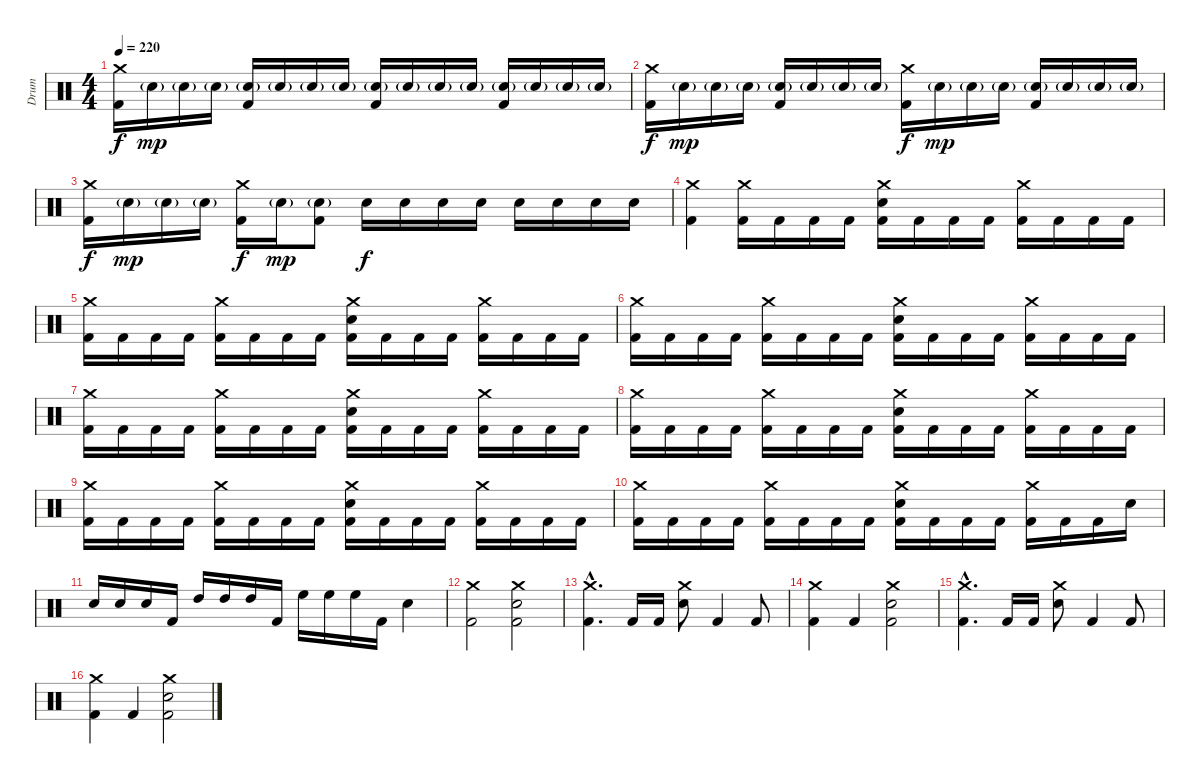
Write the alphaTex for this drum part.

\track ("Drum" "Drum") {instrument percussion}
\staff {score}
\articulation defaults
\ts (4 4)
\tempo 220
\clef neutral
\ks c
("Crash medium (hit)" "Kick (hit) 2").16{dy f} "Electric Snare (hit)"{g}.16{dy mp} "Electric Snare (hit)"{g}.16 "Electric Snare (hit)"{g}.16 ("Electric Snare (hit)"{g} "Kick (hit) 2").16 "Electric Snare (hit)"{g}.16 "Electric Snare (hit)"{g}.16 "Electric Snare (hit)"{g}.16 ("Electric Snare (hit)"{g} "Kick (hit) 2").16 "Electric Snare (hit)"{g}.16 "Electric Snare (hit)"{g}.16 "Electric Snare (hit)"{g}.16 ("Electric Snare (hit)"{g} "Kick (hit) 2").16 "Electric Snare (hit)"{g}.16 "Electric Snare (hit)"{g}.16 "Electric Snare (hit)"{g}.16 |
("Crash medium (hit)" "Kick (hit) 2").16{dy f} "Electric Snare (hit)"{g}.16{dy mp} "Electric Snare (hit)"{g}.16 "Electric Snare (hit)"{g}.16 ("Electric Snare (hit)"{g} "Kick (hit) 2").16 "Electric Snare (hit)"{g}.16 "Electric Snare (hit)"{g}.16 "Electric Snare (hit)"{g}.16 ("Crash medium (hit)" "Kick (hit) 2").16{dy f} "Electric Snare (hit)"{g}.16{dy mp} "Electric Snare (hit)"{g}.16 "Electric Snare (hit)"{g}.16 ("Electric Snare (hit)"{g} "Kick (hit) 2").16 "Electric Snare (hit)"{g}.16 "Electric Snare (hit)"{g}.16 "Electric Snare (hit)"{g}.16 |
("Crash medium (hit)" "Kick (hit) 2").16{dy f} "Electric Snare (hit)"{g}.16{dy mp} "Electric Snare (hit)"{g}.16 "Electric Snare (hit)"{g}.16 ("Crash medium (hit)" "Kick (hit) 2").16{dy f} "Electric Snare (hit)"{g}.16{dy mp} ("Electric Snare (hit)"{g} "Kick (hit) 2").8 "Electric Snare (hit)".16{dy f} "Electric Snare (hit)".16 "Electric Snare (hit)".16 "Electric Snare (hit)".16 "Electric Snare (hit)".16 "Electric Snare (hit)".16 "Electric Snare (hit)".16 "Electric Snare (hit)".16 |
("Crash medium (hit)" "Kick (hit) 2").4 ("Crash medium (hit)" "Kick (hit) 2").16 "Kick (hit) 2".16 "Kick (hit) 2".16 "Kick (hit) 2".16 ("Crash medium (hit)" "Electric Snare (hit)" "Kick (hit) 2").16 "Kick (hit) 2".16 "Kick (hit) 2".16 "Kick (hit) 2".16 ("Crash medium (hit)" "Kick (hit) 2").16 "Kick (hit) 2".16 "Kick (hit) 2".16 "Kick (hit) 2".16 |
("Crash medium (hit)" "Kick (hit) 2").16 "Kick (hit) 2".16 "Kick (hit) 2".16 "Kick (hit) 2".16 ("Crash medium (hit)" "Kick (hit) 2").16 "Kick (hit) 2".16 "Kick (hit) 2".16 "Kick (hit) 2".16 ("Crash medium (hit)" "Electric Snare (hit)" "Kick (hit) 2").16 "Kick (hit) 2".16 "Kick (hit) 2".16 "Kick (hit) 2".16 ("Crash medium (hit)" "Kick (hit) 2").16 "Kick (hit) 2".16 "Kick (hit) 2".16 "Kick (hit) 2".16 |
("Crash medium (hit)" "Kick (hit) 2").16 "Kick (hit) 2".16 "Kick (hit) 2".16 "Kick (hit) 2".16 ("Crash medium (hit)" "Kick (hit) 2").16 "Kick (hit) 2".16 "Kick (hit) 2".16 "Kick (hit) 2".16 ("Crash medium (hit)" "Electric Snare (hit)" "Kick (hit) 2").16 "Kick (hit) 2".16 "Kick (hit) 2".16 "Kick (hit) 2".16 ("Crash medium (hit)" "Kick (hit) 2").16 "Kick (hit) 2".16 "Kick (hit) 2".16 "Kick (hit) 2".16 |
("Crash medium (hit)" "Kick (hit) 2").16 "Kick (hit) 2".16 "Kick (hit) 2".16 "Kick (hit) 2".16 ("Crash medium (hit)" "Kick (hit) 2").16 "Kick (hit) 2".16 "Kick (hit) 2".16 "Kick (hit) 2".16 ("Crash medium (hit)" "Electric Snare (hit)" "Kick (hit) 2").16 "Kick (hit) 2".16 "Kick (hit) 2".16 "Kick (hit) 2".16 ("Crash medium (hit)" "Kick (hit) 2").16 "Kick (hit) 2".16 "Kick (hit) 2".16 "Kick (hit) 2".16 |
("Crash medium (hit)" "Kick (hit) 2").16 "Kick (hit) 2".16 "Kick (hit) 2".16 "Kick (hit) 2".16 ("Crash medium (hit)" "Kick (hit) 2").16 "Kick (hit) 2".16 "Kick (hit) 2".16 "Kick (hit) 2".16 ("Crash medium (hit)" "Electric Snare (hit)" "Kick (hit) 2").16 "Kick (hit) 2".16 "Kick (hit) 2".16 "Kick (hit) 2".16 ("Crash medium (hit)" "Kick (hit) 2").16 "Kick (hit) 2".16 "Kick (hit) 2".16 "Kick (hit) 2".16 |
("Crash medium (hit)" "Kick (hit) 2").16 "Kick (hit) 2".16 "Kick (hit) 2".16 "Kick (hit) 2".16 ("Crash medium (hit)" "Kick (hit) 2").16 "Kick (hit) 2".16 "Kick (hit) 2".16 "Kick (hit) 2".16 ("Crash medium (hit)" "Electric Snare (hit)" "Kick (hit) 2").16 "Kick (hit) 2".16 "Kick (hit) 2".16 "Kick (hit) 2".16 ("Crash medium (hit)" "Kick (hit) 2").16 "Kick (hit) 2".16 "Kick (hit) 2".16 "Kick (hit) 2".16 |
("Crash medium (hit)" "Kick (hit) 2").16 "Kick (hit) 2".16 "Kick (hit) 2".16 "Kick (hit) 2".16 ("Crash medium (hit)" "Kick (hit) 2").16 "Kick (hit) 2".16 "Kick (hit) 2".16 "Kick (hit) 2".16 ("Crash medium (hit)" "Electric Snare (hit)" "Kick (hit) 2").16 "Kick (hit) 2".16 "Kick (hit) 2".16 "Kick (hit) 2".16 ("Crash medium (hit)" "Kick (hit) 2").16 "Kick (hit) 2".16 "Kick (hit) 2".16 "Electric Snare (hit)".16 |
"Electric Snare (hit)".16 "Electric Snare (hit)".16 "Electric Snare (hit)".16 "Kick (hit) 2".16 "High Tom (hit)".16 "High Tom (hit)".16 "High Tom (hit)".16 "Kick (hit) 2".16 "High Floor Tom (hit)".16 "High Floor Tom (hit)".16 "High Floor Tom (hit)".16 "Kick (hit) 2".16 "Electric Snare (hit)".4 |
("Crash medium (hit)" "Kick (hit) 2").2 ("Crash medium (hit)" "Electric Snare (hit)" "Kick (hit) 2").2 |
("Crash medium (hit)"{hac} "Kick (hit) 2"{hac}).4{d} "Kick (hit) 2".16 "Kick (hit) 2".16 ("Crash medium (hit)" "Electric Snare (hit)").8 "Kick (hit) 2".4 "Kick (hit) 2".8 |
("Crash medium (hit)" "Kick (hit) 2").4 "Kick (hit) 2".4 ("Crash medium (hit)" "Electric Snare (hit)" "Kick (hit) 2").2 |
("Crash medium (hit)"{hac} "Kick (hit) 2"{hac}).4{d} "Kick (hit) 2".16 "Kick (hit) 2".16 ("Crash medium (hit)" "Electric Snare (hit)").8 "Kick (hit) 2".4 "Kick (hit) 2".8 |
("Crash medium (hit)" "Kick (hit) 2").4 "Kick (hit) 2".4 ("Crash medium (hit)" "Electric Snare (hit)" "Kick (hit) 2").2
